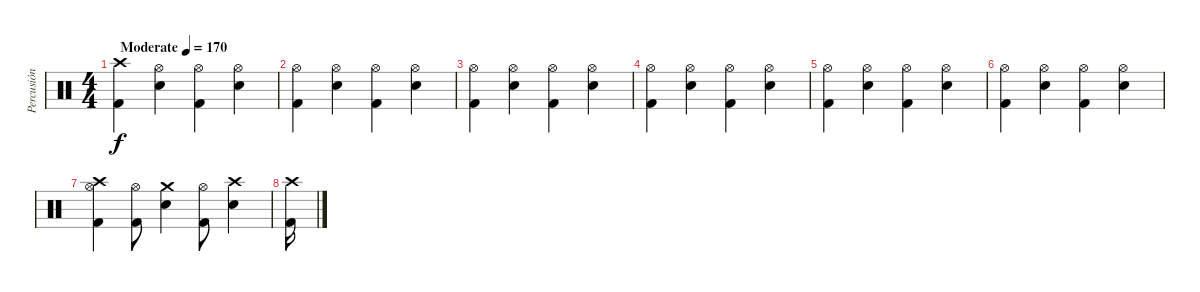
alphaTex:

\track ("Percusión" "Percusión") {instrument percussion}
\staff {score}
\articulation defaults
\ts (4 4)
\tempo (170 "Moderate")
\clef neutral
\ks c
("Crash high (hit)" "Kick (hit) 2").4{dy f} ("Hi-Hat (open)" "Electric Snare (hit)").4 ("Hi-Hat (open)" "Kick (hit) 2").4 ("Hi-Hat (open)" "Electric Snare (hit)").4 |
("Hi-Hat (open)" "Kick (hit) 2").4 ("Hi-Hat (open)" "Electric Snare (hit)").4 ("Hi-Hat (open)" "Kick (hit) 2").4 ("Hi-Hat (open)" "Electric Snare (hit)").4 |
("Hi-Hat (open)" "Kick (hit) 2").4 ("Hi-Hat (open)" "Electric Snare (hit)").4 ("Hi-Hat (open)" "Kick (hit) 2").4 ("Hi-Hat (open)" "Electric Snare (hit)").4 |
("Hi-Hat (open)" "Kick (hit) 2").4 ("Hi-Hat (open)" "Electric Snare (hit)").4 ("Hi-Hat (open)" "Kick (hit) 2").4 ("Hi-Hat (open)" "Electric Snare (hit)").4 |
("Hi-Hat (open)" "Kick (hit) 2").4 ("Hi-Hat (open)" "Electric Snare (hit)").4 ("Hi-Hat (open)" "Kick (hit) 2").4 ("Hi-Hat (open)" "Electric Snare (hit)").4 |
("Hi-Hat (open)" "Kick (hit) 2").4 ("Hi-Hat (open)" "Electric Snare (hit)").4 ("Hi-Hat (open)" "Kick (hit) 2").4 ("Hi-Hat (open)" "Electric Snare (hit)").4 |
("Crash high (hit)" "Hi-Hat (open)" "Kick (hit) 2").4 ("Hi-Hat (open)" "Kick (hit) 2").8 ("Crash medium (hit)" "Electric Snare (hit)").4 ("Hi-Hat (open)" "Kick (hit) 2").8 ("Crash high (hit)" "Electric Snare (hit)").4 |
("Crash high (hit)" "Kick (hit) 2").16
